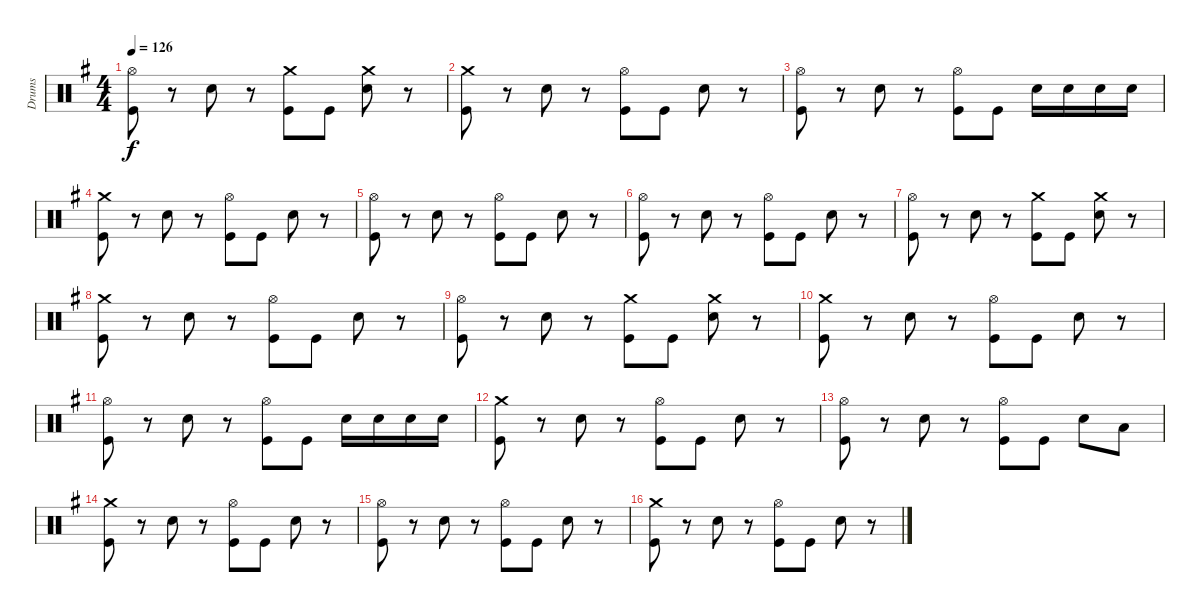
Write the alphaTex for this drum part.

\track ("Drums" "Drums") {instrument percussion}
\staff {score}
\articulation defaults
\ts (4 4)
\tempo 126
\clef neutral
\ks g
("Kick (hit)" "Hi-Hat (open)").8{dy f} r.8 "Electric Snare (hit)".8 r.8 ("Kick (hit)" "Crash medium (hit)").8 "Kick (hit)".8 ("Electric Snare (hit)" "Crash medium (hit)").8 r.8 |
("Kick (hit)" "Crash medium (hit)").8 r.8 "Electric Snare (hit)".8 r.8 ("Kick (hit)" "Hi-Hat (open)").8 "Kick (hit)".8 "Electric Snare (hit)".8 r.8 |
("Kick (hit)" "Hi-Hat (open)").8 r.8 "Electric Snare (hit)".8 r.8 ("Kick (hit)" "Hi-Hat (open)").8 "Kick (hit)".8 "Electric Snare (hit)".16 "Electric Snare (hit)".16 "Electric Snare (hit)".16 "Electric Snare (hit)".16 |
("Kick (hit)" "Crash medium (hit)").8 r.8 "Electric Snare (hit)".8 r.8 ("Kick (hit)" "Hi-Hat (open)").8 "Kick (hit)".8 "Electric Snare (hit)".8 r.8 |
("Kick (hit)" "Hi-Hat (open)").8 r.8 "Electric Snare (hit)".8 r.8 ("Kick (hit)" "Hi-Hat (open)").8 "Kick (hit)".8 "Electric Snare (hit)".8 r.8 |
("Kick (hit)" "Hi-Hat (open)").8 r.8 "Electric Snare (hit)".8 r.8 ("Kick (hit)" "Hi-Hat (open)").8 "Kick (hit)".8 "Electric Snare (hit)".8 r.8 |
("Kick (hit)" "Hi-Hat (open)").8 r.8 "Electric Snare (hit)".8 r.8 ("Kick (hit)" "Crash medium (hit)").8 "Kick (hit)".8 ("Electric Snare (hit)" "Crash medium (hit)").8 r.8 |
("Kick (hit)" "Crash medium (hit)").8 r.8 "Electric Snare (hit)".8 r.8 ("Kick (hit)" "Hi-Hat (open)").8 "Kick (hit)".8 "Electric Snare (hit)".8 r.8 |
("Kick (hit)" "Hi-Hat (open)").8 r.8 "Electric Snare (hit)".8 r.8 ("Kick (hit)" "Crash medium (hit)").8 "Kick (hit)".8 ("Electric Snare (hit)" "Crash medium (hit)").8 r.8 |
("Kick (hit)" "Crash medium (hit)").8 r.8 "Electric Snare (hit)".8 r.8 ("Kick (hit)" "Hi-Hat (open)").8 "Kick (hit)".8 "Electric Snare (hit)".8 r.8 |
("Kick (hit)" "Hi-Hat (open)").8 r.8 "Electric Snare (hit)".8 r.8 ("Kick (hit)" "Hi-Hat (open)").8 "Kick (hit)".8 "Electric Snare (hit)".16 "Electric Snare (hit)".16 "Electric Snare (hit)".16 "Electric Snare (hit)".16 |
("Kick (hit)" "Crash medium (hit)").8 r.8 "Electric Snare (hit)".8 r.8 ("Kick (hit)" "Hi-Hat (open)").8 "Kick (hit)".8 "Electric Snare (hit)".8 r.8 |
("Kick (hit)" "Hi-Hat (open)").8 r.8 "Electric Snare (hit)".8 r.8 ("Kick (hit)" "Hi-Hat (open)").8 "Kick (hit)".8 "Electric Snare (hit)".8 "Low Tom (hit)".8 |
("Kick (hit)" "Crash medium (hit)").8 r.8 "Electric Snare (hit)".8 r.8 ("Kick (hit)" "Hi-Hat (open)").8 "Kick (hit)".8 "Electric Snare (hit)".8 r.8 |
("Kick (hit)" "Hi-Hat (open)").8 r.8 "Electric Snare (hit)".8 r.8 ("Kick (hit)" "Hi-Hat (open)").8 "Kick (hit)".8 "Electric Snare (hit)".8 r.8 |
("Kick (hit)" "Crash medium (hit)").8 r.8 "Electric Snare (hit)".8 r.8 ("Kick (hit)" "Hi-Hat (open)").8 "Kick (hit)".8 "Electric Snare (hit)".8 r.8
